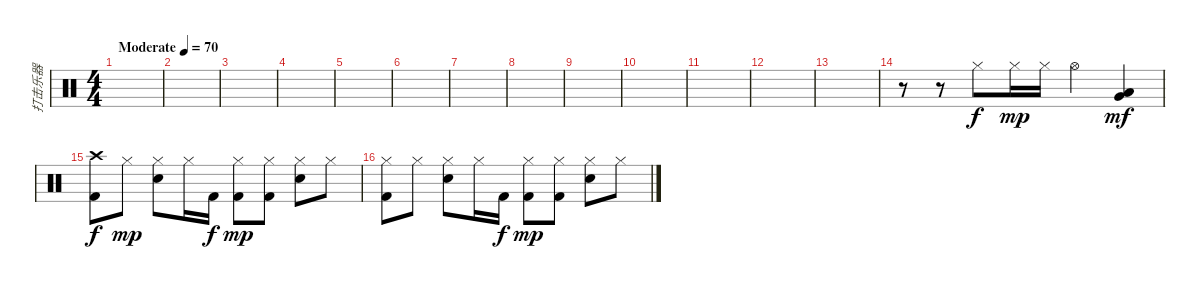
\track ("打击乐器" "打击乐器") {instrument percussion}
\staff {score}
\articulation defaults
\ts (4 4)
\tempo (70 "Moderate")
\clef neutral
\ks c
|
|
|
|
|
|
|
|
|
|
|
|
|
r.8 r.8 "Hi-Hat (closed)".8 "Hi-Hat (closed)".16{dy mp} "Hi-Hat (closed)".16 "Hi-Hat (open)".4 ("Very Low Tom (hit)" "Low Floor Tom (hit)").4{bd 60 dy mf} |
("Crash high (hit)" "Kick (hit) 2").8{dy f} "Hi-Hat (closed)".8{dy mp} ("Hi-Hat (closed)" "Electric Snare (hit)").8 "Hi-Hat (closed)".16 "Kick (hit) 2".16{dy f} ("Hi-Hat (closed)" "Kick (hit) 2").8{dy mp} ("Hi-Hat (closed)" "Kick (hit) 2").8 ("Hi-Hat (closed)" "Electric Snare (hit)").8 "Hi-Hat (closed)".8 |
("Hi-Hat (closed)" "Kick (hit) 2").8 "Hi-Hat (closed)".8 ("Hi-Hat (closed)" "Electric Snare (hit)").8 "Hi-Hat (closed)".16 "Kick (hit) 2".16{dy f} ("Hi-Hat (closed)" "Kick (hit) 2").8{dy mp} ("Hi-Hat (closed)" "Kick (hit) 2").8 ("Hi-Hat (closed)" "Electric Snare (hit)").8 "Hi-Hat (closed)".8
